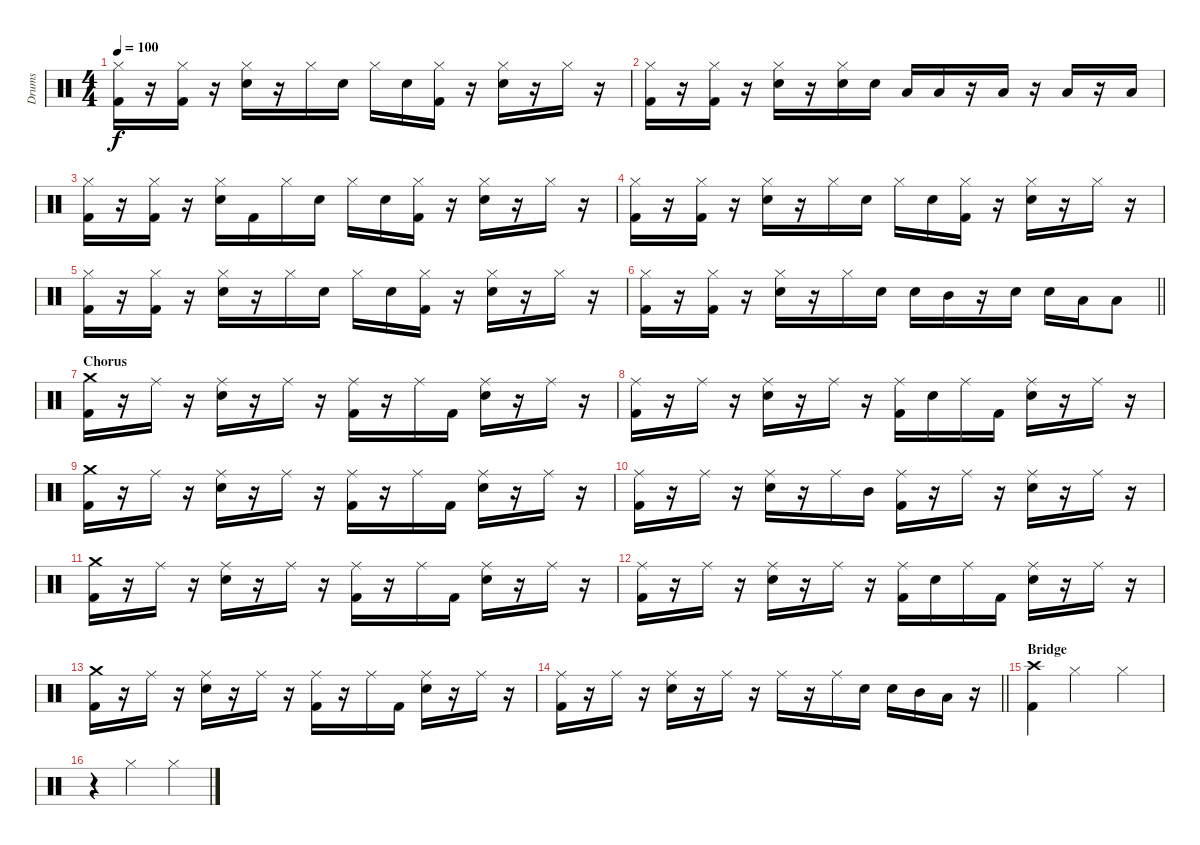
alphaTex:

\track ("Drums" "Drums") {instrument percussion}
\staff {score}
\articulation defaults
\ts (4 4)
\tempo 100
\clef neutral
\ks c
("Hi-Hat (closed)" "Kick (hit) 2").16{dy f} r.16 ("Hi-Hat (closed)" "Kick (hit) 2").16 r.16 ("Hi-Hat (closed)" "Snare (hit) 2").16 r.16 "Hi-Hat (closed)".16 "Snare (hit) 2".16 "Hi-Hat (closed)".16 "Snare (hit) 2".16 ("Hi-Hat (closed)" "Kick (hit) 2").16 r.16 ("Hi-Hat (closed)" "Snare (hit) 2").16 r.16 "Hi-Hat (closed)".16 r.16 |
("Hi-Hat (closed)" "Kick (hit) 2").16 r.16 ("Hi-Hat (closed)" "Kick (hit) 2").16 r.16 ("Hi-Hat (closed)" "Snare (hit) 2").16 r.16 ("Hi-Hat (closed)" "Snare (hit) 2").16 "Snare (hit) 2".16 "Low Floor Tom (hit)".16 "Low Floor Tom (hit)".16 r.16 "Low Floor Tom (hit)".16 r.16 "Low Floor Tom (hit)".16 r.16 "Low Floor Tom (hit)".16 |
("Hi-Hat (closed)" "Kick (hit) 2").16 r.16 ("Hi-Hat (closed)" "Kick (hit) 2").16 r.16 ("Hi-Hat (closed)" "Snare (hit) 2").16 "Kick (hit) 2".16 "Hi-Hat (closed)".16 "Snare (hit) 2".16 "Hi-Hat (closed)".16 "Snare (hit) 2".16 ("Hi-Hat (closed)" "Kick (hit) 2").16 r.16 ("Hi-Hat (closed)" "Snare (hit) 2").16 r.16 "Hi-Hat (closed)".16 r.16 |
("Hi-Hat (closed)" "Kick (hit) 2").16 r.16 ("Hi-Hat (closed)" "Kick (hit) 2").16 r.16 ("Hi-Hat (closed)" "Snare (hit) 2").16 r.16 "Hi-Hat (closed)".16 "Snare (hit) 2".16 "Hi-Hat (closed)".16 "Snare (hit) 2".16 ("Hi-Hat (closed)" "Kick (hit) 2").16 r.16 ("Hi-Hat (closed)" "Snare (hit) 2").16 r.16 "Hi-Hat (closed)".16 r.16 |
("Hi-Hat (closed)" "Kick (hit) 2").16 r.16 ("Hi-Hat (closed)" "Kick (hit) 2").16 r.16 ("Hi-Hat (closed)" "Snare (hit) 2").16 r.16 "Hi-Hat (closed)".16 "Snare (hit) 2".16 "Hi-Hat (closed)".16 "Snare (hit) 2".16 ("Hi-Hat (closed)" "Kick (hit) 2").16 r.16 ("Hi-Hat (closed)" "Snare (hit) 2").16 r.16 "Hi-Hat (closed)".16 r.16 |
\barLineRight lightlight
("Hi-Hat (closed)" "Kick (hit) 2").16 r.16 ("Hi-Hat (closed)" "Kick (hit) 2").16 r.16 ("Hi-Hat (closed)" "Snare (hit) 2").16 r.16 "Hi-Hat (closed)".16 "Snare (hit) 2".16 "Snare (hit) 2".16 "Mid Tom (hit)".16 r.16 "Snare (hit) 2".16 "Snare (hit) 2".16 "Low Floor Tom (hit)".16 "Low Tom (hit)".8 |
\section ("" "Chorus")
("Crash medium (hit)" "Kick (hit) 2").16 r.16 "Ride (middle)".16 r.16 ("Ride (middle)" "Snare (hit) 2").16 r.16 "Ride (middle)".16 r.16 ("Ride (middle)" "Kick (hit) 2").16 r.16 "Ride (middle)".16 "Kick (hit) 2".16 ("Ride (middle)" "Snare (hit) 2").16 r.16 "Ride (middle)".16 r.16 |
("Ride (middle)" "Kick (hit) 2").16 r.16 "Ride (middle)".16 r.16 ("Ride (middle)" "Snare (hit) 2").16 r.16 "Ride (middle)".16 r.16 ("Ride (middle)" "Kick (hit) 2").16 "Snare (hit) 2".16 "Ride (middle)".16 "Kick (hit) 2".16 ("Ride (middle)" "Snare (hit) 2").16 r.16 "Ride (middle)".16 r.16 |
("Crash medium (hit)" "Kick (hit) 2").16 r.16 "Ride (middle)".16 r.16 ("Ride (middle)" "Snare (hit) 2").16 r.16 "Ride (middle)".16 r.16 ("Ride (middle)" "Kick (hit) 2").16 r.16 "Ride (middle)".16 "Kick (hit) 2".16 ("Ride (middle)" "Snare (hit) 2").16 r.16 "Ride (middle)".16 r.16 |
("Ride (middle)" "Kick (hit) 2").16 r.16 "Ride (middle)".16 r.16 ("Ride (middle)" "Snare (hit) 2").16 r.16 "Ride (middle)".16 "Mid Tom (hit)".16 ("Ride (middle)" "Kick (hit) 2").16 r.16 "Ride (middle)".16 r.16 ("Ride (middle)" "Snare (hit) 2").16 r.16 "Ride (middle)".16 r.16 |
("Crash medium (hit)" "Kick (hit) 2").16 r.16 "Ride (middle)".16 r.16 ("Ride (middle)" "Snare (hit) 2").16 r.16 "Ride (middle)".16 r.16 ("Ride (middle)" "Kick (hit) 2").16 r.16 "Ride (middle)".16 "Kick (hit) 2".16 ("Ride (middle)" "Snare (hit) 2").16 r.16 "Ride (middle)".16 r.16 |
("Ride (middle)" "Kick (hit) 2").16 r.16 "Ride (middle)".16 r.16 ("Ride (middle)" "Snare (hit) 2").16 r.16 "Ride (middle)".16 r.16 ("Ride (middle)" "Kick (hit) 2").16 "Snare (hit) 2".16 "Ride (middle)".16 "Kick (hit) 2".16 ("Ride (middle)" "Snare (hit) 2").16 r.16 "Ride (middle)".16 r.16 |
("Crash medium (hit)" "Kick (hit) 2").16 r.16 "Ride (middle)".16 r.16 ("Ride (middle)" "Snare (hit) 2").16 r.16 "Ride (middle)".16 r.16 ("Ride (middle)" "Kick (hit) 2").16 r.16 "Ride (middle)".16 "Kick (hit) 2".16 ("Ride (middle)" "Snare (hit) 2").16 r.16 "Ride (middle)".16 r.16 |
\barLineRight lightlight
("Ride (middle)" "Kick (hit) 2").16 r.16 "Ride (middle)".16 r.16 ("Ride (middle)" "Snare (hit) 2").16 r.16 "Ride (middle)".16 r.16 "Ride (middle)".16 r.16 "Ride (middle)".16 "Snare (hit) 2".16 "Snare (hit) 2".16 "Mid Tom (hit)".16 "Low Tom (hit)".16 r.16 |
\section ("" "Bridge")
("Crash high (hit)" "Kick (hit) 2").4 "Hi-Hat (closed)".2 "Hi-Hat (closed)".4 |
r.4 "Hi-Hat (closed)".2 "Hi-Hat (closed)".4
